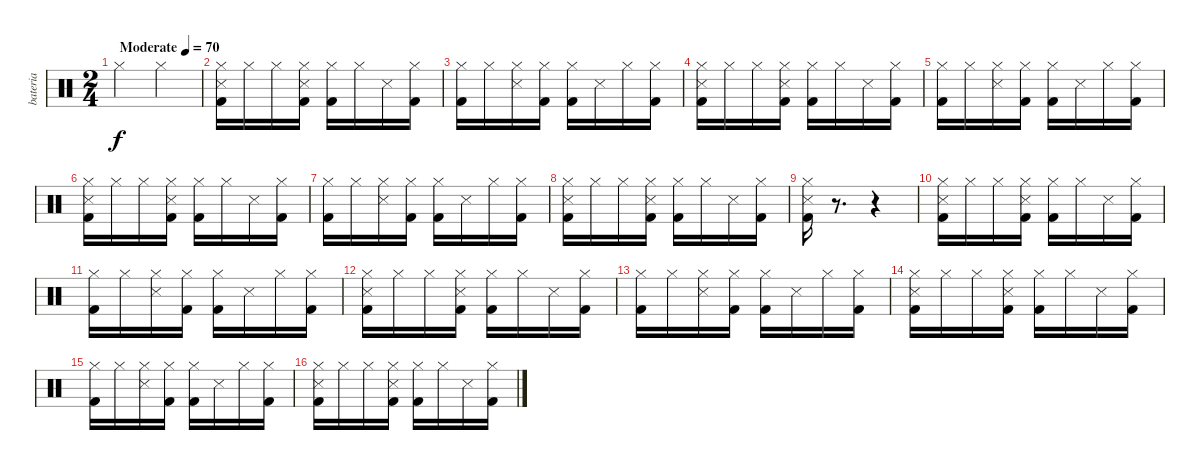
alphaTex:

\track ("bateria" "bateria") {instrument percussion}
\staff {score}
\articulation defaults
\ts (2 4)
\tempo (70 "Moderate")
\clef neutral
\ks c "Hi-Hat (closed)".4{dy f} "Hi-Hat (closed)".4
|
("Hi-Hat (closed)" "Snare (side stick) 3" "Kick (hit) 2").16 "Hi-Hat (closed)".16 "Hi-Hat (closed)".16 ("Hi-Hat (closed)" "Snare (side stick) 3" "Kick (hit) 2").16 ("Hi-Hat (closed)" "Kick (hit) 2").16 "Hi-Hat (closed)".16 "Snare (side stick) 3".16 ("Hi-Hat (closed)" "Kick (hit) 2").16 |
("Hi-Hat (closed)" "Kick (hit) 2").16 "Hi-Hat (closed)".16 ("Hi-Hat (closed)" "Snare (side stick) 3").16 ("Hi-Hat (closed)" "Kick (hit) 2").16 ("Hi-Hat (closed)" "Kick (hit) 2").16 "Snare (side stick) 3".16 "Hi-Hat (closed)".16 ("Hi-Hat (closed)" "Kick (hit) 2").16 |
("Hi-Hat (closed)" "Snare (side stick) 3" "Kick (hit) 2").16 "Hi-Hat (closed)".16 "Hi-Hat (closed)".16 ("Hi-Hat (closed)" "Snare (side stick) 3" "Kick (hit) 2").16 ("Hi-Hat (closed)" "Kick (hit) 2").16 "Hi-Hat (closed)".16 "Snare (side stick) 3".16 ("Hi-Hat (closed)" "Kick (hit) 2").16 |
("Hi-Hat (closed)" "Kick (hit) 2").16 "Hi-Hat (closed)".16 ("Hi-Hat (closed)" "Snare (side stick) 3").16 ("Hi-Hat (closed)" "Kick (hit) 2").16 ("Hi-Hat (closed)" "Kick (hit) 2").16 "Snare (side stick) 3".16 "Hi-Hat (closed)".16 ("Hi-Hat (closed)" "Kick (hit) 2").16 |
("Hi-Hat (closed)" "Snare (side stick) 3" "Kick (hit) 2").16 "Hi-Hat (closed)".16 "Hi-Hat (closed)".16 ("Hi-Hat (closed)" "Snare (side stick) 3" "Kick (hit) 2").16 ("Hi-Hat (closed)" "Kick (hit) 2").16 "Hi-Hat (closed)".16 "Snare (side stick) 3".16 ("Hi-Hat (closed)" "Kick (hit) 2").16 |
("Hi-Hat (closed)" "Kick (hit) 2").16 "Hi-Hat (closed)".16 ("Hi-Hat (closed)" "Snare (side stick) 3").16 ("Hi-Hat (closed)" "Kick (hit) 2").16 ("Hi-Hat (closed)" "Kick (hit) 2").16 "Snare (side stick) 3".16 "Hi-Hat (closed)".16 ("Hi-Hat (closed)" "Kick (hit) 2").16 |
("Hi-Hat (closed)" "Snare (side stick) 3" "Kick (hit) 2").16 "Hi-Hat (closed)".16 "Hi-Hat (closed)".16 ("Hi-Hat (closed)" "Snare (side stick) 3" "Kick (hit) 2").16 ("Hi-Hat (closed)" "Kick (hit) 2").16 "Hi-Hat (closed)".16 "Snare (side stick) 3".16 ("Hi-Hat (closed)" "Kick (hit) 2").16 |
("Hi-Hat (closed)" "Snare (side stick) 3" "Kick (hit) 2").16 r.8{d} r.4 |
("Hi-Hat (closed)" "Snare (side stick) 3" "Kick (hit) 2").16 "Hi-Hat (closed)".16 "Hi-Hat (closed)".16 ("Hi-Hat (closed)" "Snare (side stick) 3" "Kick (hit) 2").16 ("Hi-Hat (closed)" "Kick (hit) 2").16 "Hi-Hat (closed)".16 "Snare (side stick) 3".16 ("Hi-Hat (closed)" "Kick (hit) 2").16 |
("Hi-Hat (closed)" "Kick (hit) 2").16 "Hi-Hat (closed)".16 ("Hi-Hat (closed)" "Snare (side stick) 3").16 ("Hi-Hat (closed)" "Kick (hit) 2").16 ("Hi-Hat (closed)" "Kick (hit) 2").16 "Snare (side stick) 3".16 "Hi-Hat (closed)".16 ("Hi-Hat (closed)" "Kick (hit) 2").16 |
("Hi-Hat (closed)" "Snare (side stick) 3" "Kick (hit) 2").16 "Hi-Hat (closed)".16 "Hi-Hat (closed)".16 ("Hi-Hat (closed)" "Snare (side stick) 3" "Kick (hit) 2").16 ("Hi-Hat (closed)" "Kick (hit) 2").16 "Hi-Hat (closed)".16 "Snare (side stick) 3".16 ("Hi-Hat (closed)" "Kick (hit) 2").16 |
("Hi-Hat (closed)" "Kick (hit) 2").16 "Hi-Hat (closed)".16 ("Hi-Hat (closed)" "Snare (side stick) 3").16 ("Hi-Hat (closed)" "Kick (hit) 2").16 ("Hi-Hat (closed)" "Kick (hit) 2").16 "Snare (side stick) 3".16 "Hi-Hat (closed)".16 ("Hi-Hat (closed)" "Kick (hit) 2").16 |
("Hi-Hat (closed)" "Snare (side stick) 3" "Kick (hit) 2").16 "Hi-Hat (closed)".16 "Hi-Hat (closed)".16 ("Hi-Hat (closed)" "Snare (side stick) 3" "Kick (hit) 2").16 ("Hi-Hat (closed)" "Kick (hit) 2").16 "Hi-Hat (closed)".16 "Snare (side stick) 3".16 ("Hi-Hat (closed)" "Kick (hit) 2").16 |
("Hi-Hat (closed)" "Kick (hit) 2").16 "Hi-Hat (closed)".16 ("Hi-Hat (closed)" "Snare (side stick) 3").16 ("Hi-Hat (closed)" "Kick (hit) 2").16 ("Hi-Hat (closed)" "Kick (hit) 2").16 "Snare (side stick) 3".16 "Hi-Hat (closed)".16 ("Hi-Hat (closed)" "Kick (hit) 2").16 |
("Hi-Hat (closed)" "Snare (side stick) 3" "Kick (hit) 2").16 "Hi-Hat (closed)".16 "Hi-Hat (closed)".16 ("Hi-Hat (closed)" "Snare (side stick) 3" "Kick (hit) 2").16 ("Hi-Hat (closed)" "Kick (hit) 2").16 "Hi-Hat (closed)".16 "Snare (side stick) 3".16 ("Hi-Hat (closed)" "Kick (hit) 2").16
